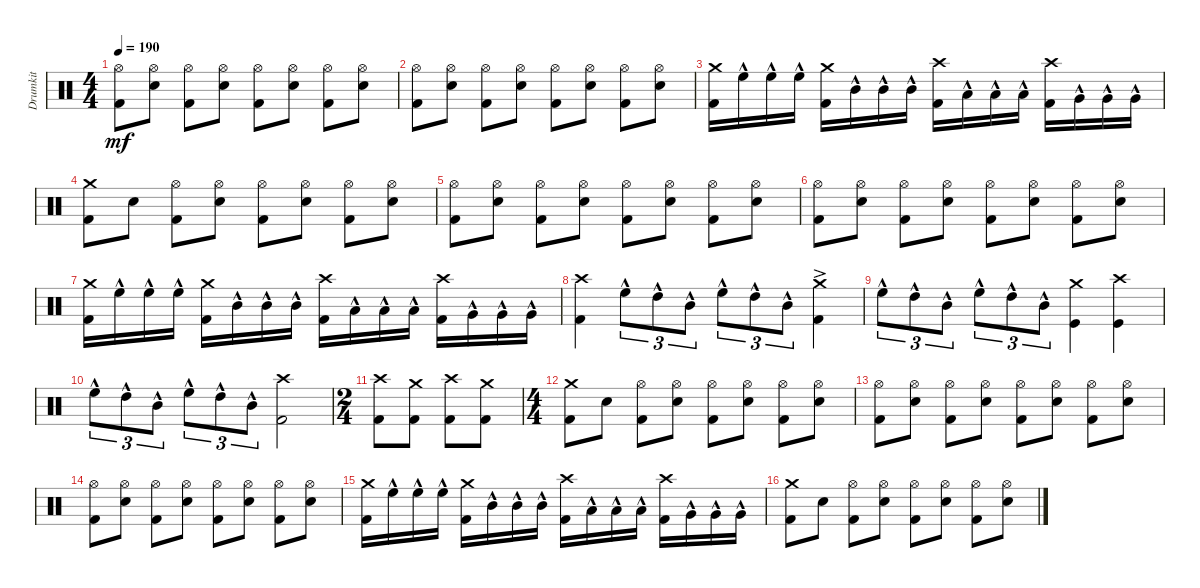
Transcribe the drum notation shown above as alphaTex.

\track ("Drumkit" "Drumkit") {instrument percussion}
\staff {score}
\articulation defaults
\ts (4 4)
\tempo 190
\clef neutral
\ks c
("Hi-Hat (open)" "Kick (hit) 2").8{dy mf} ("Hi-Hat (open)" "Snare (hit) 2").8 ("Hi-Hat (open)" "Kick (hit) 2").8 ("Hi-Hat (open)" "Snare (hit) 2").8 ("Hi-Hat (open)" "Kick (hit) 2").8 ("Hi-Hat (open)" "Snare (hit) 2").8 ("Hi-Hat (open)" "Kick (hit) 2").8 ("Hi-Hat (open)" "Snare (hit) 2").8 |
("Hi-Hat (open)" "Kick (hit) 2").8 ("Hi-Hat (open)" "Snare (hit) 2").8 ("Hi-Hat (open)" "Kick (hit) 2").8 ("Hi-Hat (open)" "Snare (hit) 2").8 ("Hi-Hat (open)" "Kick (hit) 2").8 ("Hi-Hat (open)" "Snare (hit) 2").8 ("Hi-Hat (open)" "Kick (hit) 2").8 ("Hi-Hat (open)" "Snare (hit) 2").8 |
("Crash medium (hit)" "Kick (hit) 2").16 "High Floor Tom (hit)"{hac}.16 "High Floor Tom (hit)"{hac}.16 "High Floor Tom (hit)"{hac}.16 ("Crash medium (hit)" "Kick (hit) 2").16 "Mid Tom (hit)"{hac}.16 "Mid Tom (hit)"{hac}.16 "Mid Tom (hit)"{hac}.16 ("Crash high (hit)" "Kick (hit) 2").16 "Low Tom (hit)"{hac}.16 "Low Tom (hit)"{hac}.16 "Low Tom (hit)"{hac}.16 ("Crash high (hit)" "Kick (hit) 2").16 "Very Low Tom (hit)"{hac}.16 "Very Low Tom (hit)"{hac}.16 "Very Low Tom (hit)"{hac}.16 |
("Crash medium (hit)" "Kick (hit) 2").8 "Snare (hit) 2".8 ("Hi-Hat (open)" "Kick (hit) 2").8 ("Hi-Hat (open)" "Snare (hit) 2").8 ("Hi-Hat (open)" "Kick (hit) 2").8 ("Hi-Hat (open)" "Snare (hit) 2").8 ("Hi-Hat (open)" "Kick (hit) 2").8 ("Hi-Hat (open)" "Snare (hit) 2").8 |
("Hi-Hat (open)" "Kick (hit) 2").8 ("Hi-Hat (open)" "Snare (hit) 2").8 ("Hi-Hat (open)" "Kick (hit) 2").8 ("Hi-Hat (open)" "Snare (hit) 2").8 ("Hi-Hat (open)" "Kick (hit) 2").8 ("Hi-Hat (open)" "Snare (hit) 2").8 ("Hi-Hat (open)" "Kick (hit) 2").8 ("Hi-Hat (open)" "Snare (hit) 2").8 |
("Hi-Hat (open)" "Kick (hit) 2").8 ("Hi-Hat (open)" "Snare (hit) 2").8 ("Hi-Hat (open)" "Kick (hit) 2").8 ("Hi-Hat (open)" "Snare (hit) 2").8 ("Hi-Hat (open)" "Kick (hit) 2").8 ("Hi-Hat (open)" "Snare (hit) 2").8 ("Hi-Hat (open)" "Kick (hit) 2").8 ("Hi-Hat (open)" "Snare (hit) 2").8 |
("Crash medium (hit)" "Kick (hit) 2").16 "High Floor Tom (hit)"{hac}.16 "High Floor Tom (hit)"{hac}.16 "High Floor Tom (hit)"{hac}.16 ("Crash medium (hit)" "Kick (hit) 2").16 "Mid Tom (hit)"{hac}.16 "Mid Tom (hit)"{hac}.16 "Mid Tom (hit)"{hac}.16 ("Crash high (hit)" "Kick (hit) 2").16 "Low Tom (hit)"{hac}.16 "Low Tom (hit)"{hac}.16 "Low Tom (hit)"{hac}.16 ("Crash high (hit)" "Kick (hit) 2").16 "Very Low Tom (hit)"{hac}.16 "Very Low Tom (hit)"{hac}.16 "Very Low Tom (hit)"{hac}.16 |
("Crash high (hit)" "Kick (hit) 2").4 "High Floor Tom (hit)"{hac}.8{tu (3 2)} "High Tom (hit)"{hac}.8{tu (3 2)} "Mid Tom (hit)"{hac}.8{tu (3 2)} "High Floor Tom (hit)"{hac}.8{tu (3 2)} "High Tom (hit)"{hac}.8{tu (3 2)} "Mid Tom (hit)"{hac}.8{tu (3 2)} ("Crash medium (hit)" "Kick (hit) 2"{ac}).4 |
"High Floor Tom (hit)"{hac}.8{tu (3 2)} "High Tom (hit)"{hac}.8{tu (3 2)} "Mid Tom (hit)"{hac}.8{tu (3 2)} "High Floor Tom (hit)"{hac}.8{tu (3 2)} "High Tom (hit)"{hac}.8{tu (3 2)} "Mid Tom (hit)"{hac}.8{tu (3 2)} ("Crash medium (hit)" "Kick (hit)").4 ("Crash high (hit)" "Kick (hit)").4 |
"High Floor Tom (hit)"{hac}.8{tu (3 2)} "High Tom (hit)"{hac}.8{tu (3 2)} "Mid Tom (hit)"{hac}.8{tu (3 2)} "High Floor Tom (hit)"{hac}.8{tu (3 2)} "High Tom (hit)"{hac}.8{tu (3 2)} "Mid Tom (hit)"{hac}.8{tu (3 2)} ("Crash high (hit)" "Kick (hit) 2").2 |
\ts (2 4)
("Crash high (hit)" "Kick (hit) 2").8 ("Crash medium (hit)" "Kick (hit) 2").8 ("Crash high (hit)" "Kick (hit) 2").8 ("Crash medium (hit)" "Kick (hit) 2").8 |
\ts (4 4)
("Crash medium (hit)" "Kick (hit) 2").8 "Snare (hit) 2".8 ("Hi-Hat (open)" "Kick (hit) 2").8 ("Hi-Hat (open)" "Snare (hit) 2").8 ("Hi-Hat (open)" "Kick (hit) 2").8 ("Hi-Hat (open)" "Snare (hit) 2").8 ("Hi-Hat (open)" "Kick (hit) 2").8 ("Hi-Hat (open)" "Snare (hit) 2").8 |
("Hi-Hat (open)" "Kick (hit) 2").8 ("Hi-Hat (open)" "Snare (hit) 2").8 ("Hi-Hat (open)" "Kick (hit) 2").8 ("Hi-Hat (open)" "Snare (hit) 2").8 ("Hi-Hat (open)" "Kick (hit) 2").8 ("Hi-Hat (open)" "Snare (hit) 2").8 ("Hi-Hat (open)" "Kick (hit) 2").8 ("Hi-Hat (open)" "Snare (hit) 2").8 |
("Hi-Hat (open)" "Kick (hit) 2").8 ("Hi-Hat (open)" "Snare (hit) 2").8 ("Hi-Hat (open)" "Kick (hit) 2").8 ("Hi-Hat (open)" "Snare (hit) 2").8 ("Hi-Hat (open)" "Kick (hit) 2").8 ("Hi-Hat (open)" "Snare (hit) 2").8 ("Hi-Hat (open)" "Kick (hit) 2").8 ("Hi-Hat (open)" "Snare (hit) 2").8 |
("Crash medium (hit)" "Kick (hit) 2").16 "High Floor Tom (hit)"{hac}.16 "High Floor Tom (hit)"{hac}.16 "High Floor Tom (hit)"{hac}.16 ("Crash medium (hit)" "Kick (hit) 2").16 "Mid Tom (hit)"{hac}.16 "Mid Tom (hit)"{hac}.16 "Mid Tom (hit)"{hac}.16 ("Crash high (hit)" "Kick (hit) 2").16 "Low Tom (hit)"{hac}.16 "Low Tom (hit)"{hac}.16 "Low Tom (hit)"{hac}.16 ("Crash high (hit)" "Kick (hit) 2").16 "Very Low Tom (hit)"{hac}.16 "Very Low Tom (hit)"{hac}.16 "Very Low Tom (hit)"{hac}.16 |
("Crash medium (hit)" "Kick (hit) 2").8 "Snare (hit) 2".8 ("Hi-Hat (open)" "Kick (hit) 2").8 ("Hi-Hat (open)" "Snare (hit) 2").8 ("Hi-Hat (open)" "Kick (hit) 2").8 ("Hi-Hat (open)" "Snare (hit) 2").8 ("Hi-Hat (open)" "Kick (hit) 2").8 ("Hi-Hat (open)" "Snare (hit) 2").8
